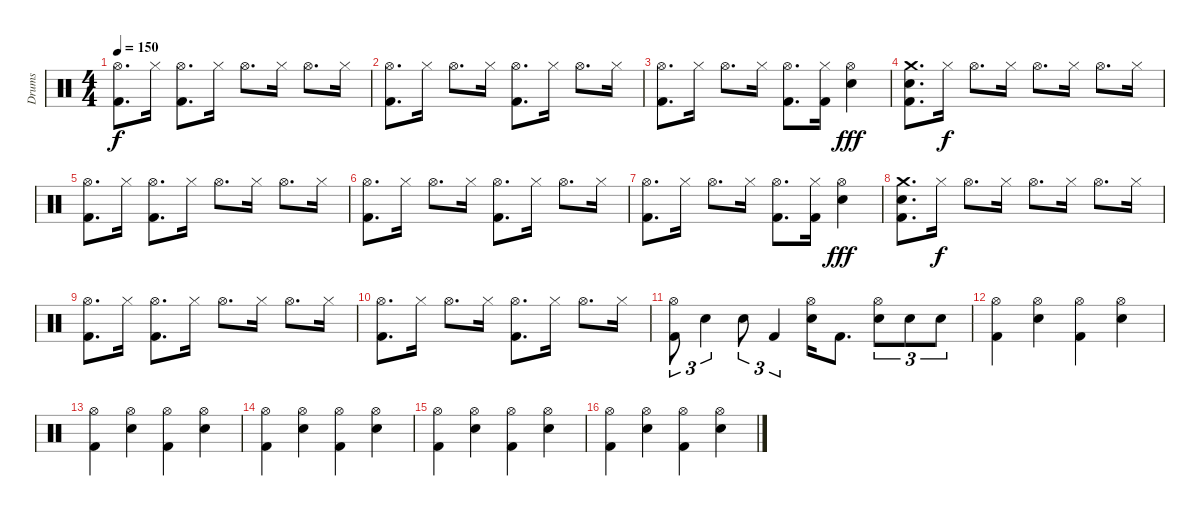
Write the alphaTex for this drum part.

\track ("Drums" "Drums") {instrument percussion}
\staff {score}
\articulation defaults
\ts (4 4)
\tempo 150
\clef neutral
\ks c
("Hi-Hat (open)" "Kick (hit) 2").8{d dy f volume 9} "Hi-Hat (closed)".16 ("Hi-Hat (open)" "Kick (hit) 2").8{d} "Hi-Hat (closed)".16 "Hi-Hat (open)".8{d} "Hi-Hat (closed)".16 "Hi-Hat (open)".8{d} "Hi-Hat (closed)".16 |
("Hi-Hat (open)" "Kick (hit) 2").8{d volume 9} "Hi-Hat (closed)".16 "Hi-Hat (open)".8{d} "Hi-Hat (closed)".16 ("Hi-Hat (open)" "Kick (hit) 2").8{d} "Hi-Hat (closed)".16 "Hi-Hat (open)".8{d} "Hi-Hat (closed)".16 |
("Hi-Hat (open)" "Kick (hit) 2").8{d volume 9} "Hi-Hat (closed)".16 "Hi-Hat (open)".8{d} "Hi-Hat (closed)".16 ("Hi-Hat (open)" "Kick (hit) 2").8{d} ("Hi-Hat (closed)" "Kick (hit) 2").16 ("Hi-Hat (open)" "Snare (hit) 2").4{dy fff} |
("Crash medium (hit)" "Snare (hit) 2" "Kick (hit) 2").8{d volume 9} "Hi-Hat (closed)".16{dy f} "Hi-Hat (open)".8{d} "Hi-Hat (closed)".16 "Hi-Hat (open)".8{d} "Hi-Hat (closed)".16 "Hi-Hat (open)".8{d} "Hi-Hat (closed)".16 |
("Hi-Hat (open)" "Kick (hit) 2").8{d volume 9} "Hi-Hat (closed)".16 ("Hi-Hat (open)" "Kick (hit) 2").8{d} "Hi-Hat (closed)".16 "Hi-Hat (open)".8{d} "Hi-Hat (closed)".16 "Hi-Hat (open)".8{d} "Hi-Hat (closed)".16 |
("Hi-Hat (open)" "Kick (hit) 2").8{d volume 9} "Hi-Hat (closed)".16 "Hi-Hat (open)".8{d} "Hi-Hat (closed)".16 ("Hi-Hat (open)" "Kick (hit) 2").8{d} "Hi-Hat (closed)".16 "Hi-Hat (open)".8{d} "Hi-Hat (closed)".16 |
("Hi-Hat (open)" "Kick (hit) 2").8{d volume 9} "Hi-Hat (closed)".16 "Hi-Hat (open)".8{d} "Hi-Hat (closed)".16 ("Hi-Hat (open)" "Kick (hit) 2").8{d} ("Hi-Hat (closed)" "Kick (hit) 2").16 ("Hi-Hat (open)" "Snare (hit) 2").4{dy fff} |
("Crash medium (hit)" "Snare (hit) 2" "Kick (hit) 2").8{d volume 9} "Hi-Hat (closed)".16{dy f} "Hi-Hat (open)".8{d} "Hi-Hat (closed)".16 "Hi-Hat (open)".8{d} "Hi-Hat (closed)".16 "Hi-Hat (open)".8{d} "Hi-Hat (closed)".16 |
("Hi-Hat (open)" "Kick (hit) 2").8{d volume 9} "Hi-Hat (closed)".16 ("Hi-Hat (open)" "Kick (hit) 2").8{d} "Hi-Hat (closed)".16 "Hi-Hat (open)".8{d} "Hi-Hat (closed)".16 "Hi-Hat (open)".8{d} "Hi-Hat (closed)".16 |
("Hi-Hat (open)" "Kick (hit) 2").8{d volume 13} "Hi-Hat (closed)".16 "Hi-Hat (open)".8{d} "Hi-Hat (closed)".16 ("Hi-Hat (open)" "Kick (hit) 2").8{d} "Hi-Hat (closed)".16 "Hi-Hat (open)".8{d} "Hi-Hat (closed)".16 |
("Hi-Hat (open)" "Kick (hit) 2").8{tu (3 2)} "Snare (hit) 2".4{tu (3 2)} "Snare (hit) 2".8{tu (3 2)} "Kick (hit) 2".4{tu (3 2)} ("Hi-Hat (open)" "Snare (hit) 2").16 "Kick (hit) 2".8{d} ("Hi-Hat (open)" "Snare (hit) 2").8{tu (3 2)} "Snare (hit) 2".8{tu (3 2)} "Snare (hit) 2".8{tu (3 2)} |
("Hi-Hat (open)" "Kick (hit) 2").4 ("Hi-Hat (open)" "Snare (hit) 2").4 ("Hi-Hat (open)" "Kick (hit) 2").4 ("Hi-Hat (open)" "Snare (hit) 2").4 |
("Hi-Hat (open)" "Kick (hit) 2").4 ("Hi-Hat (open)" "Snare (hit) 2").4 ("Hi-Hat (open)" "Kick (hit) 2").4 ("Hi-Hat (open)" "Snare (hit) 2").4 |
("Hi-Hat (open)" "Kick (hit) 2").4 ("Hi-Hat (open)" "Snare (hit) 2").4 ("Hi-Hat (open)" "Kick (hit) 2").4 ("Hi-Hat (open)" "Snare (hit) 2").4 |
("Hi-Hat (open)" "Kick (hit) 2").4 ("Hi-Hat (open)" "Snare (hit) 2").4 ("Hi-Hat (open)" "Kick (hit) 2").4 ("Hi-Hat (open)" "Snare (hit) 2").4 |
("Hi-Hat (open)" "Kick (hit) 2").4 ("Hi-Hat (open)" "Snare (hit) 2").4 ("Hi-Hat (open)" "Kick (hit) 2").4 ("Hi-Hat (open)" "Snare (hit) 2").4
